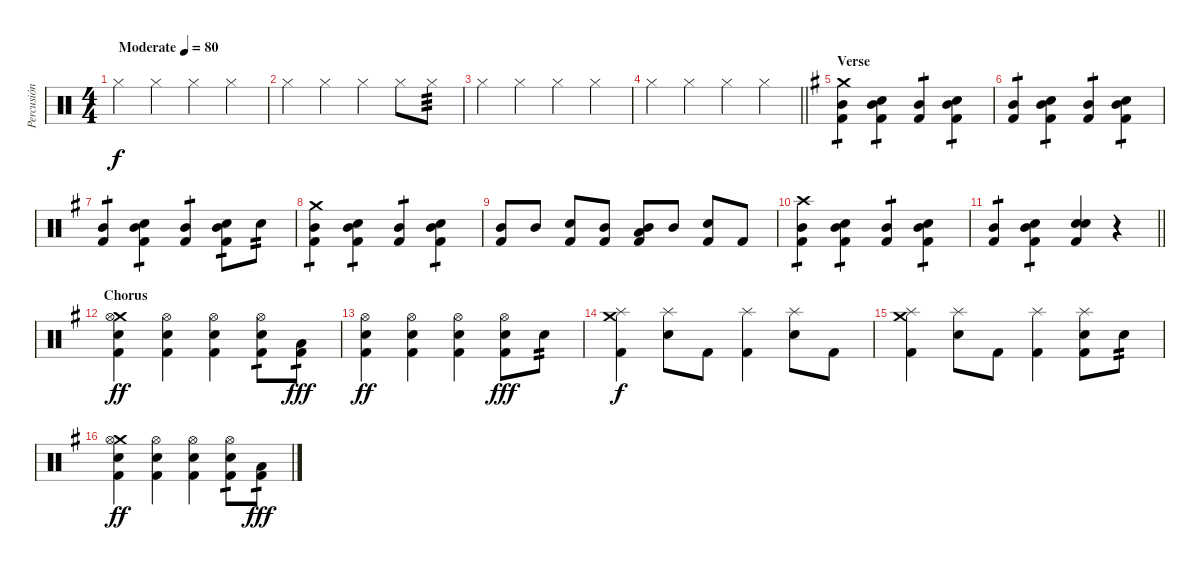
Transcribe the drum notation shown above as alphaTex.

\track ("Percusión" "Percusión") {instrument percussion}
\staff {score}
\articulation defaults
\ts (4 4)
\tempo (80 "Moderate")
\clef neutral
\ks c "Hi-Hat (closed)".4{dy f} "Hi-Hat (closed)".4 "Hi-Hat (closed)".4 "Hi-Hat (closed)".4
|
"Hi-Hat (closed)".4 "Hi-Hat (closed)".4 "Hi-Hat (closed)".4 "Hi-Hat (closed)".8 "Hi-Hat (closed)".8{tp 3} |
"Hi-Hat (closed)".4 "Hi-Hat (closed)".4 "Hi-Hat (closed)".4 "Hi-Hat (closed)".4 |
\barLineRight lightlight "Hi-Hat (closed)".4 "Hi-Hat (closed)".4 "Hi-Hat (closed)".4 "Hi-Hat (closed)".4
|
\section ("" "Verse")
\ks eminor
("Crash medium (hit)" "Mid Tom (hit)" "Kick (hit) 2").4{tp 1} ("Mid Tom (hit)" "Electric Snare (hit)" "Kick (hit) 2").4{tp 1} ("Mid Tom (hit)" "Kick (hit) 2").4{tp 1} ("Mid Tom (hit)" "Electric Snare (hit)" "Kick (hit) 2").4{tp 1} |
("Mid Tom (hit)" "Kick (hit) 2").4{tp 1} ("Mid Tom (hit)" "Electric Snare (hit)" "Kick (hit) 2").4{tp 1} ("Mid Tom (hit)" "Kick (hit) 2").4{tp 1} ("Mid Tom (hit)" "Electric Snare (hit)" "Kick (hit) 2").4{tp 1} |
("Mid Tom (hit)" "Kick (hit) 2").4{tp 1} ("Mid Tom (hit)" "Electric Snare (hit)" "Kick (hit) 2").4{tp 1} ("Mid Tom (hit)" "Kick (hit) 2").4{tp 1} ("Mid Tom (hit)" "Electric Snare (hit)" "Kick (hit) 2").8{tp 1} "Electric Snare (hit)".8{tp 2} |
("Crash medium (hit)" "Mid Tom (hit)" "Kick (hit) 2").4{tp 1} ("Mid Tom (hit)" "Electric Snare (hit)" "Kick (hit) 2").4{tp 1} ("Mid Tom (hit)" "Kick (hit) 2").4{tp 1} ("Mid Tom (hit)" "Electric Snare (hit)" "Kick (hit) 2").4{tp 1} |
("Mid Tom (hit)" "Kick (hit) 2").8 "Mid Tom (hit)".8 ("Electric Snare (hit)" "Kick (hit) 2").8 ("Mid Tom (hit)" "Kick (hit) 2").8 ("Low Tom (hit)" "Mid Tom (hit)" "Kick (hit) 2").8 "Mid Tom (hit)".8 ("Electric Snare (hit)" "Kick (hit) 2").8 "Kick (hit) 2".8 |
("Crash high (hit)" "Mid Tom (hit)" "Kick (hit) 2").4{tp 1} ("Mid Tom (hit)" "Electric Snare (hit)" "Kick (hit) 2").4{tp 1} ("Mid Tom (hit)" "Kick (hit) 2").4{tp 1} ("Mid Tom (hit)" "Electric Snare (hit)" "Kick (hit) 2").4{tp 1} |
\barLineRight lightlight
("Mid Tom (hit)" "Kick (hit) 2").4{tp 1} ("Mid Tom (hit)" "Electric Snare (hit)" "Kick (hit) 2").4{tp 1} ("Electric Snare (hit)" "Electric Snare (hit)" "Kick (hit) 2").4 r.4 |
\section ("" "Chorus")
("Crash medium (hit)" "Hi-Hat (open)" "Electric Snare (hit)" "Kick (hit) 2").4{dy ff} ("Hi-Hat (open)" "Electric Snare (hit)" "Kick (hit) 2").4 ("Hi-Hat (open)" "Electric Snare (hit)" "Kick (hit) 2").4 ("Hi-Hat (open)" "Electric Snare (hit)" "Kick (hit) 2").8{tp 1} ("Low Tom (hit)" "Kick (hit) 2").8{tp 1 dy fff} |
("Hi-Hat (open)" "Electric Snare (hit)" "Kick (hit) 2").4{dy ff} ("Hi-Hat (open)" "Electric Snare (hit)" "Kick (hit) 2").4 ("Hi-Hat (open)" "Electric Snare (hit)" "Kick (hit) 2").4 ("Hi-Hat (open)" "Electric Snare (hit)" "Kick (hit) 2").8{dy fff} "Electric Snare (hit)".8{tp 2} |
("Crash medium (hit)" "Splash (hit)" "Kick (hit) 2").4{dy f} ("Splash (hit)" "Electric Snare (hit)").8 "Kick (hit) 2".8 ("Splash (hit)" "Kick (hit) 2").4 ("Splash (hit)" "Electric Snare (hit)").8 "Kick (hit) 2".8 |
("Crash medium (hit)" "Splash (hit)" "Kick (hit) 2").4 ("Splash (hit)" "Electric Snare (hit)").8 "Kick (hit) 2".8 ("Splash (hit)" "Kick (hit) 2").4 ("Splash (hit)" "Electric Snare (hit)" "Kick (hit) 2").8 "Electric Snare (hit)".8{tp 2} |
("Crash medium (hit)" "Hi-Hat (open)" "Electric Snare (hit)" "Kick (hit) 2").4{dy ff} ("Hi-Hat (open)" "Electric Snare (hit)" "Kick (hit) 2").4 ("Hi-Hat (open)" "Electric Snare (hit)" "Kick (hit) 2").4 ("Hi-Hat (open)" "Electric Snare (hit)" "Kick (hit) 2").8{tp 1} ("Low Tom (hit)" "Kick (hit) 2").8{tp 1 dy fff}
